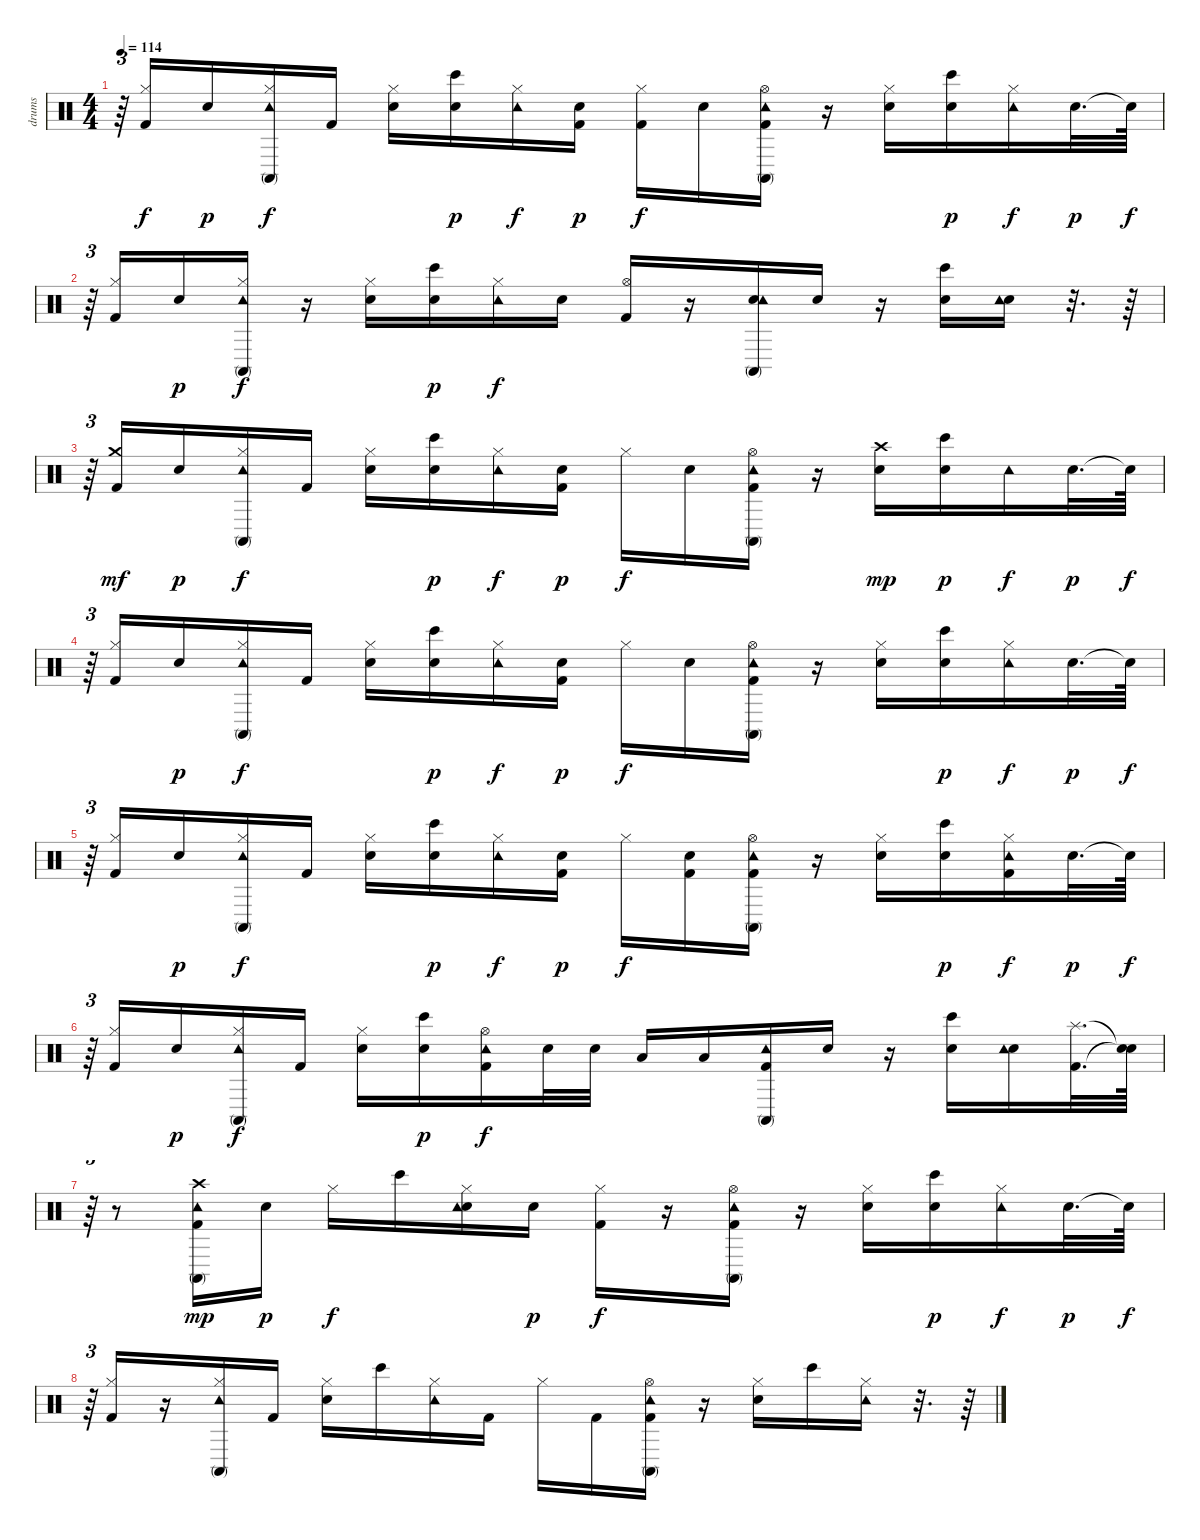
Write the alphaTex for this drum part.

\track ("drums" "drums") {instrument percussion}
\staff {score}
\articulation defaults
\ts (4 4)
\tempo 114
\clef neutral
\ks c
r.64{tu (3 2) dy f} ("Hi-Hat (closed)" "Kick (hit) 2").16 "Electric Snare (hit)".16{dy p} ("Hi-Hat (closed)" "Tambourine (hit)" "Conga high (mute)").16{dy f} "Kick (hit) 2".16 ("Electric Snare (hit)" "Hi-Hat (closed)").16 ("Electric Snare (hit)" "Bongo High (hit)").16{dy p} ("Hi-Hat (closed)" "Tambourine (hit)").16{dy f} ("Electric Snare (hit)" "Kick (hit) 2").16{dy p} ("Kick (hit) 2" "Hi-Hat (closed)").16{dy f} "Electric Snare (hit)".16 ("Kick (hit) 2" "Hi-Hat (open)" "Tambourine (hit)" "Conga high (mute)").16 r.16 ("Electric Snare (hit)" "Hi-Hat (closed)").16 ("Electric Snare (hit)" "Bongo High (hit)").16{dy p} ("Hi-Hat (closed)" "Tambourine (hit)").16{dy f} "Electric Snare (hit)".32{d dy p} "Snare (hit)"{t}.64{dy f} |
r.64{tu (3 2)} ("Hi-Hat (closed)" "Kick (hit) 2").16 "Electric Snare (hit)".16{dy p} ("Hi-Hat (closed)" "Tambourine (hit)" "Conga high (mute)").16{dy f} r.16 ("Electric Snare (hit)" "Hi-Hat (closed)").16 ("Electric Snare (hit)" "Bongo High (hit)").16{dy p} ("Hi-Hat (closed)" "Tambourine (hit)").16{dy f} "Electric Snare (hit)".16 ("Kick (hit) 2" "Hi-Hat (open)").16 r.16 ("Electric Snare (hit)" "Tambourine (hit)" "Conga high (mute)").16 "Electric Snare (hit)".16 r.16 ("Electric Snare (hit)" "Bongo High (hit)").16 ("Electric Snare (hit)" "Tambourine (hit)").16 r.32{d} r.64 |
r.64{tu (3 2)} ("Kick (hit) 2" "Crash medium (hit)").16{dy mf} "Electric Snare (hit)".16{dy p} ("Tambourine (hit)" "Conga high (mute)" "Hi-Hat (closed)").16{dy f} "Kick (hit) 2".16 ("Hi-Hat (closed)" "Electric Snare (hit)").16 ("Bongo High (hit)" "Electric Snare (hit)").16{dy p} ("Tambourine (hit)" "Hi-Hat (closed)").16{dy f} ("Electric Snare (hit)" "Kick (hit) 2").16{dy p} "Hi-Hat (closed)".16{dy f} "Electric Snare (hit)".16 ("Tambourine (hit)" "Conga high (mute)" "Hi-Hat (open)" "Kick (hit) 2").16 r.16 ("Electric Snare (hit)" "Crash high (hit)").16{dy mp} ("Bongo High (hit)" "Electric Snare (hit)").16{dy p} "Tambourine (hit)".16{dy f} "Electric Snare (hit)".32{d dy p} "Snare (hit)"{t}.64{dy f} |
r.64{tu (3 2)} ("Kick (hit) 2" "Hi-Hat (closed)").16 "Electric Snare (hit)".16{dy p} ("Hi-Hat (closed)" "Tambourine (hit)" "Conga high (mute)").16{dy f} "Kick (hit) 2".16 ("Hi-Hat (closed)" "Electric Snare (hit)").16 ("Electric Snare (hit)" "Bongo High (hit)").16{dy p} ("Hi-Hat (closed)" "Tambourine (hit)").16{dy f} ("Electric Snare (hit)" "Kick (hit) 2").16{dy p} "Hi-Hat (closed)".16{dy f} "Electric Snare (hit)".16 ("Kick (hit) 2" "Hi-Hat (open)" "Tambourine (hit)" "Conga high (mute)").16 r.16 ("Electric Snare (hit)" "Hi-Hat (closed)").16 ("Electric Snare (hit)" "Bongo High (hit)").16{dy p} ("Hi-Hat (closed)" "Tambourine (hit)").16{dy f} "Electric Snare (hit)".32{d dy p} "Snare (hit)"{t}.64{dy f} |
r.64{tu (3 2)} ("Hi-Hat (closed)" "Kick (hit) 2").16 "Electric Snare (hit)".16{dy p} ("Hi-Hat (closed)" "Tambourine (hit)" "Conga high (mute)").16{dy f} "Kick (hit) 2".16 ("Electric Snare (hit)" "Hi-Hat (closed)").16 ("Electric Snare (hit)" "Bongo High (hit)").16{dy p} ("Hi-Hat (closed)" "Tambourine (hit)").16{dy f} ("Electric Snare (hit)" "Kick (hit) 2").16{dy p} "Hi-Hat (closed)".16{dy f} ("Kick (hit) 2" "Electric Snare (hit)").16 ("Hi-Hat (open)" "Kick (hit) 2" "Tambourine (hit)" "Conga high (mute)").16 r.16 ("Electric Snare (hit)" "Hi-Hat (closed)").16 ("Electric Snare (hit)" "Bongo High (hit)").16{dy p} ("Kick (hit) 2" "Hi-Hat (closed)" "Tambourine (hit)").16{dy f} "Electric Snare (hit)".32{d dy p} "Snare (hit)"{t}.64{dy f} |
r.64{tu (3 2)} ("Hi-Hat (closed)" "Kick (hit) 2").16 "Electric Snare (hit)".16{dy p} ("Hi-Hat (closed)" "Tambourine (hit)" "Conga high (mute)").16{dy f} "Kick (hit) 2".16 ("Electric Snare (hit)" "Hi-Hat (closed)").16 ("Electric Snare (hit)" "Bongo High (hit)").16{dy p} ("Kick (hit) 2" "Hi-Hat (open)" "Tambourine (hit)").16{dy f} "Electric Snare (hit)".32 "Electric Snare (hit)".32 "Low Tom (hit)".16 "Low Tom (hit)".16 ("Kick (hit) 2" "Tambourine (hit)" "Conga high (mute)").16 "Electric Snare (hit)".16 r.16 ("Electric Snare (hit)" "Bongo High (hit)").16 ("Electric Snare (hit)" "Tambourine (hit)").16 ("Splash (hit)" "Kick (hit) 2").32{d} ("Snare (hit)"{t} "Snare (hit)"{t}).64 |
r.64{tu (3 2)} r.8 ("Crash high (hit)" "Kick (hit) 2" "Tambourine (hit)" "Conga high (mute)").16{dy mp} "Electric Snare (hit)".16{dy p} "Hi-Hat (closed)".16{dy f} "Bongo High (hit)".16 ("Electric Snare (hit)" "Hi-Hat (closed)" "Tambourine (hit)").16 "Electric Snare (hit)".16{dy p} ("Kick (hit) 2" "Hi-Hat (closed)").16{dy f} r.16 ("Kick (hit) 2" "Hi-Hat (open)" "Tambourine (hit)" "Conga high (mute)").16 r.16 ("Electric Snare (hit)" "Hi-Hat (closed)").16 ("Electric Snare (hit)" "Bongo High (hit)").16{dy p} ("Hi-Hat (closed)" "Tambourine (hit)").16{dy f} "Electric Snare (hit)".32{d dy p} "Snare (hit)"{t}.64{dy f} |
r.64{tu (3 2)} ("Hi-Hat (closed)" "Kick (hit) 2").16 r.16 ("Hi-Hat (closed)" "Tambourine (hit)" "Conga high (mute)").16 "Kick (hit) 2".16 ("Electric Snare (hit)" "Hi-Hat (closed)").16 "Bongo High (hit)".16 ("Hi-Hat (closed)" "Tambourine (hit)").16 "Kick (hit) 2".16 "Hi-Hat (closed)".16 "Kick (hit) 2".16 ("Kick (hit) 2" "Hi-Hat (open)" "Tambourine (hit)" "Conga high (mute)").16 r.16 ("Electric Snare (hit)" "Hi-Hat (closed)").16 "Bongo High (hit)".16 ("Hi-Hat (closed)" "Tambourine (hit)").16 r.32{d} r.64
